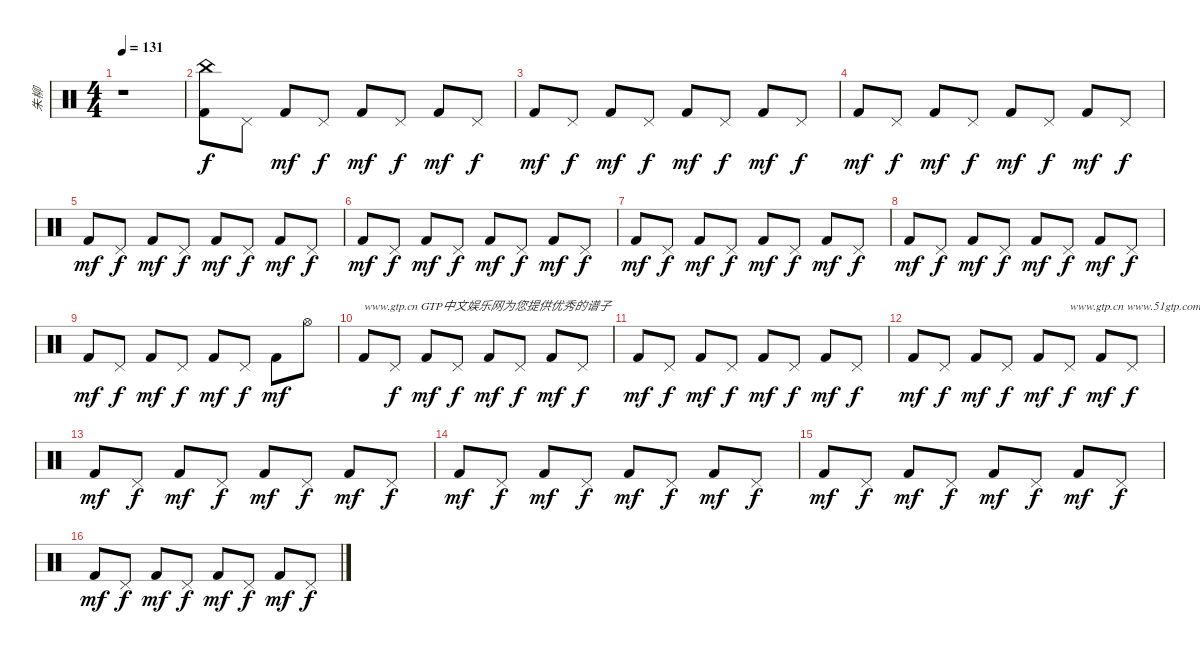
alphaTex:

\track ("朱柳" "朱柳") {instrument percussion}
\staff {score}
\articulation defaults
\ts (4 4)
\tempo 131
\clef neutral
\ks c
r.1{dy f} |
("China (hit)" "Kick (hit) 2").8 "Pedal Hi-Hat (hit)".8 "Kick (hit) 2".8{dy mf} "Pedal Hi-Hat (hit)".8{dy f} "Kick (hit) 2".8{dy mf} "Pedal Hi-Hat (hit)".8{dy f} "Kick (hit) 2".8{dy mf} "Pedal Hi-Hat (hit)".8{dy f} |
"Kick (hit) 2".8{dy mf} "Pedal Hi-Hat (hit)".8{dy f} "Kick (hit) 2".8{dy mf} "Pedal Hi-Hat (hit)".8{dy f} "Kick (hit) 2".8{dy mf} "Pedal Hi-Hat (hit)".8{dy f} "Kick (hit) 2".8{dy mf} "Pedal Hi-Hat (hit)".8{dy f} |
"Kick (hit) 2".8{dy mf} "Pedal Hi-Hat (hit)".8{dy f} "Kick (hit) 2".8{dy mf} "Pedal Hi-Hat (hit)".8{dy f} "Kick (hit) 2".8{dy mf} "Pedal Hi-Hat (hit)".8{dy f} "Kick (hit) 2".8{dy mf} "Pedal Hi-Hat (hit)".8{dy f} |
"Kick (hit) 2".8{dy mf} "Pedal Hi-Hat (hit)".8{dy f} "Kick (hit) 2".8{dy mf} "Pedal Hi-Hat (hit)".8{dy f} "Kick (hit) 2".8{dy mf} "Pedal Hi-Hat (hit)".8{dy f} "Kick (hit) 2".8{dy mf} "Pedal Hi-Hat (hit)".8{dy f} |
"Kick (hit) 2".8{dy mf} "Pedal Hi-Hat (hit)".8{dy f} "Kick (hit) 2".8{dy mf} "Pedal Hi-Hat (hit)".8{dy f} "Kick (hit) 2".8{dy mf} "Pedal Hi-Hat (hit)".8{dy f} "Kick (hit) 2".8{dy mf} "Pedal Hi-Hat (hit)".8{dy f} |
"Kick (hit) 2".8{dy mf} "Pedal Hi-Hat (hit)".8{dy f} "Kick (hit) 2".8{dy mf} "Pedal Hi-Hat (hit)".8{dy f} "Kick (hit) 2".8{dy mf} "Pedal Hi-Hat (hit)".8{dy f} "Kick (hit) 2".8{dy mf} "Pedal Hi-Hat (hit)".8{dy f} |
"Kick (hit) 2".8{dy mf} "Pedal Hi-Hat (hit)".8{dy f} "Kick (hit) 2".8{dy mf} "Pedal Hi-Hat (hit)".8{dy f} "Kick (hit) 2".8{dy mf} "Pedal Hi-Hat (hit)".8{dy f} "Kick (hit) 2".8{dy mf} "Pedal Hi-Hat (hit)".8{dy f} |
"Kick (hit) 2".8{dy mf} "Pedal Hi-Hat (hit)".8{dy f} "Kick (hit) 2".8{dy mf} "Pedal Hi-Hat (hit)".8{dy f} "Kick (hit) 2".8{dy mf} "Pedal Hi-Hat (hit)".8{dy f} "Kick (hit) 2".8{dy mf} "Hi-Hat (open)".8 |
"Kick (hit) 2".8{txt "www.gtp.cn GTP中文娱乐网为您提供优秀的谱子"} "Pedal Hi-Hat (hit)".8{dy f} "Kick (hit) 2".8{dy mf} "Pedal Hi-Hat (hit)".8{dy f} "Kick (hit) 2".8{dy mf} "Pedal Hi-Hat (hit)".8{dy f} "Kick (hit) 2".8{dy mf} "Pedal Hi-Hat (hit)".8{dy f} |
"Kick (hit) 2".8{dy mf} "Pedal Hi-Hat (hit)".8{dy f} "Kick (hit) 2".8{dy mf} "Pedal Hi-Hat (hit)".8{dy f} "Kick (hit) 2".8{dy mf} "Pedal Hi-Hat (hit)".8{dy f} "Kick (hit) 2".8{dy mf} "Pedal Hi-Hat (hit)".8{dy f} |
"Kick (hit) 2".8{dy mf} "Pedal Hi-Hat (hit)".8{dy f} "Kick (hit) 2".8{dy mf} "Pedal Hi-Hat (hit)".8{dy f} "Kick (hit) 2".8{dy mf} "Pedal Hi-Hat (hit)".8{txt "www.gtp.cn www.51gtp.com联合为您提供优秀的GTP!" dy f} "Kick (hit) 2".8{dy mf} "Pedal Hi-Hat (hit)".8{dy f} |
"Kick (hit) 2".8{dy mf} "Pedal Hi-Hat (hit)".8{dy f} "Kick (hit) 2".8{dy mf} "Pedal Hi-Hat (hit)".8{dy f} "Kick (hit) 2".8{dy mf} "Pedal Hi-Hat (hit)".8{dy f} "Kick (hit) 2".8{dy mf} "Pedal Hi-Hat (hit)".8{dy f} |
"Kick (hit) 2".8{dy mf} "Pedal Hi-Hat (hit)".8{dy f} "Kick (hit) 2".8{dy mf} "Pedal Hi-Hat (hit)".8{dy f} "Kick (hit) 2".8{dy mf} "Pedal Hi-Hat (hit)".8{dy f} "Kick (hit) 2".8{dy mf} "Pedal Hi-Hat (hit)".8{dy f} |
"Kick (hit) 2".8{dy mf} "Pedal Hi-Hat (hit)".8{dy f} "Kick (hit) 2".8{dy mf} "Pedal Hi-Hat (hit)".8{dy f} "Kick (hit) 2".8{dy mf} "Pedal Hi-Hat (hit)".8{dy f} "Kick (hit) 2".8{dy mf} "Pedal Hi-Hat (hit)".8{dy f} |
"Kick (hit) 2".8{dy mf} "Pedal Hi-Hat (hit)".8{dy f} "Kick (hit) 2".8{dy mf} "Pedal Hi-Hat (hit)".8{dy f} "Kick (hit) 2".8{dy mf} "Pedal Hi-Hat (hit)".8{dy f} "Kick (hit) 2".8{dy mf} "Pedal Hi-Hat (hit)".8{dy f}
